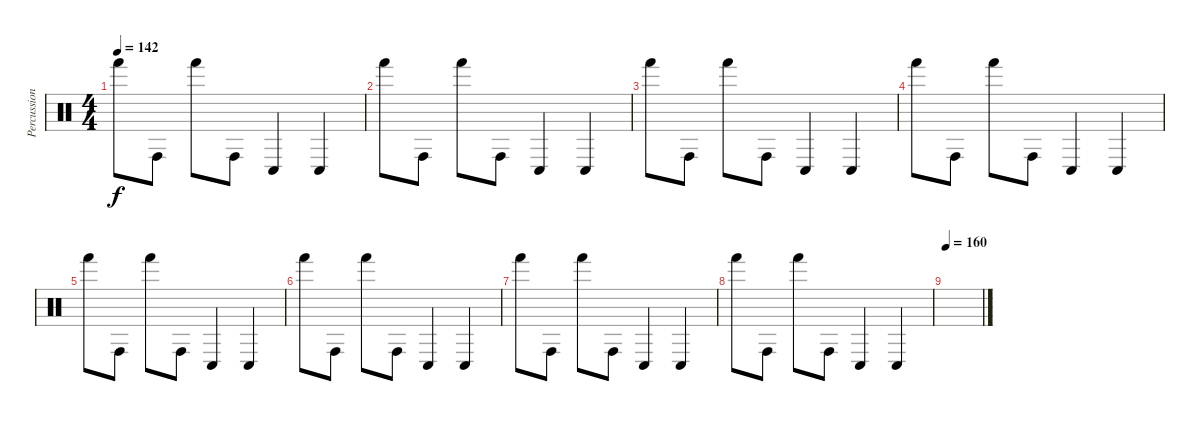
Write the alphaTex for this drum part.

\track ("Percussions" "Percussion") {instrument percussion}
\staff {score}
\articulation defaults
\ts (4 4)
\tempo 142
\clef neutral
\ks c "Hand (hit)".8{dy f} "Conga high (hit)".8 "Hand (hit)".8 "Conga high (hit)".8 "Conga low (hit)".4 "Conga low (hit)".4
|
"Hand (hit)".8 "Conga high (hit)".8 "Hand (hit)".8 "Conga high (hit)".8 "Conga low (hit)".4 "Conga low (hit)".4 |
"Hand (hit)".8 "Conga high (hit)".8 "Hand (hit)".8 "Conga high (hit)".8 "Conga low (hit)".4 "Conga low (hit)".4 |
"Hand (hit)".8 "Conga high (hit)".8 "Hand (hit)".8 "Conga high (hit)".8 "Conga low (hit)".4 "Conga low (hit)".4 |
"Hand (hit)".8 "Conga high (hit)".8 "Hand (hit)".8 "Conga high (hit)".8 "Conga low (hit)".4 "Conga low (hit)".4 |
"Hand (hit)".8 "Conga high (hit)".8 "Hand (hit)".8 "Conga high (hit)".8 "Conga low (hit)".4 "Conga low (hit)".4 |
"Hand (hit)".8 "Conga high (hit)".8 "Hand (hit)".8 "Conga high (hit)".8 "Conga low (hit)".4 "Conga low (hit)".4 |
"Hand (hit)".8 "Conga high (hit)".8 "Hand (hit)".8 "Conga high (hit)".8 "Conga low (hit)".4 "Conga low (hit)".4 |
\tempo 160
